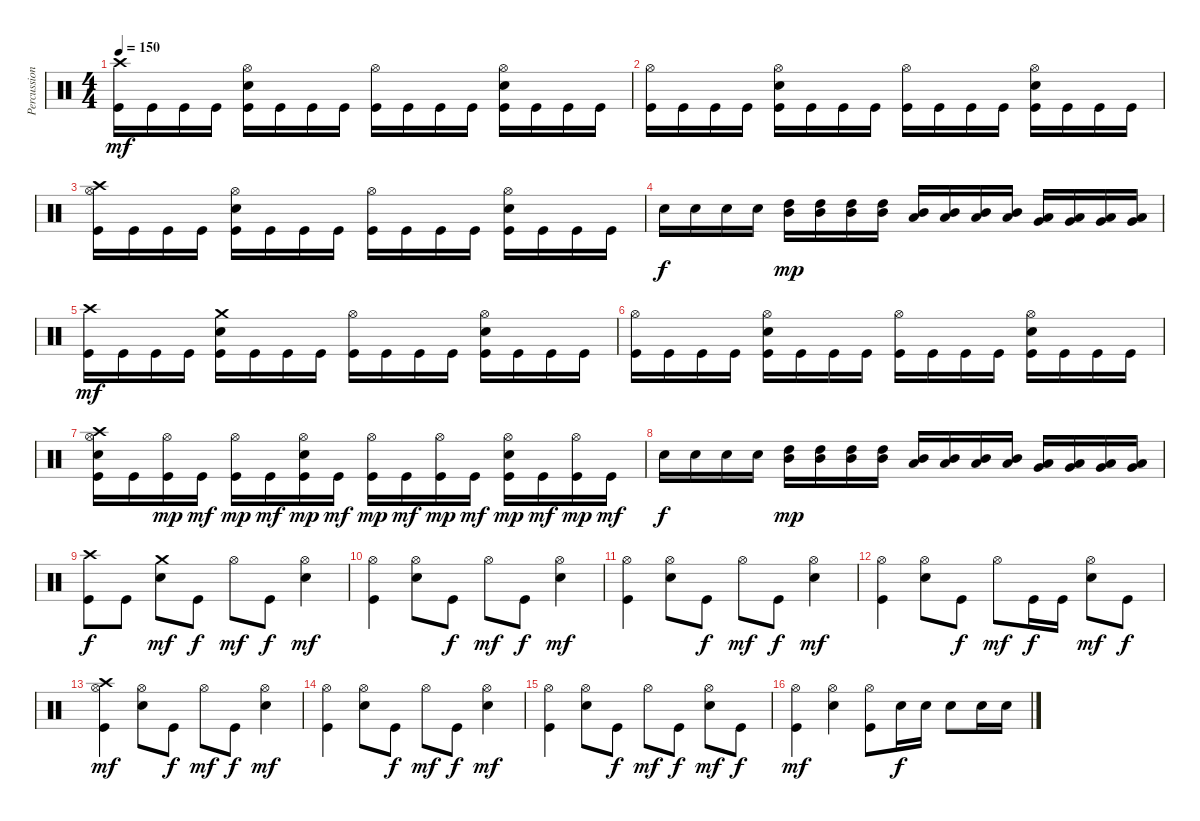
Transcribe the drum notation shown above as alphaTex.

\track ("Percussions" "Percussion") {instrument percussion}
\staff {score}
\articulation defaults
\ts (4 4)
\tempo 150
\clef neutral
\ks c
("Kick (hit)" "Crash high (hit)").16{dy mf} "Kick (hit)".16 "Kick (hit)".16 "Kick (hit)".16 ("Kick (hit)" "Electric Snare (hit)" "Hi-Hat (open)").16 "Kick (hit)".16 "Kick (hit)".16 "Kick (hit)".16 ("Kick (hit)" "Hi-Hat (open)").16 "Kick (hit)".16 "Kick (hit)".16 "Kick (hit)".16 ("Kick (hit)" "Electric Snare (hit)" "Hi-Hat (open)").16 "Kick (hit)".16 "Kick (hit)".16 "Kick (hit)".16 |
("Kick (hit)" "Hi-Hat (open)").16 "Kick (hit)".16 "Kick (hit)".16 "Kick (hit)".16 ("Kick (hit)" "Electric Snare (hit)" "Hi-Hat (open)").16 "Kick (hit)".16 "Kick (hit)".16 "Kick (hit)".16 ("Kick (hit)" "Hi-Hat (open)").16 "Kick (hit)".16 "Kick (hit)".16 "Kick (hit)".16 ("Kick (hit)" "Electric Snare (hit)" "Hi-Hat (open)").16 "Kick (hit)".16 "Kick (hit)".16 "Kick (hit)".16 |
("Kick (hit)" "Hi-Hat (open)" "Crash high (hit)").16 "Kick (hit)".16 "Kick (hit)".16 "Kick (hit)".16 ("Kick (hit)" "Electric Snare (hit)" "Hi-Hat (open)").16 "Kick (hit)".16 "Kick (hit)".16 "Kick (hit)".16 ("Kick (hit)" "Hi-Hat (open)").16 "Kick (hit)".16 "Kick (hit)".16 "Kick (hit)".16 ("Kick (hit)" "Electric Snare (hit)" "Hi-Hat (open)").16 "Kick (hit)".16 "Kick (hit)".16 "Kick (hit)".16 |
"Electric Snare (hit)".16{dy f} "Electric Snare (hit)".16 "Electric Snare (hit)".16 "Electric Snare (hit)".16 ("High Tom (hit)" "Mid Tom (hit)").16{dy mp} ("High Tom (hit)" "Mid Tom (hit)").16 ("High Tom (hit)" "Mid Tom (hit)").16 ("High Tom (hit)" "Mid Tom (hit)").16 ("Mid Tom (hit)" "Low Tom (hit)").16 ("Mid Tom (hit)" "Low Tom (hit)").16 ("Mid Tom (hit)" "Low Tom (hit)").16 ("Mid Tom (hit)" "Low Tom (hit)").16 ("Low Tom (hit)" "Very Low Tom (hit)").16 ("Low Tom (hit)" "Very Low Tom (hit)").16 ("Low Tom (hit)" "Very Low Tom (hit)").16 ("Low Tom (hit)" "Very Low Tom (hit)").16 |
("Kick (hit)" "Crash high (hit)").16{dy mf} "Kick (hit)".16 "Kick (hit)".16 "Kick (hit)".16 ("Kick (hit)" "Electric Snare (hit)" "Crash medium (hit)").16 "Kick (hit)".16 "Kick (hit)".16 "Kick (hit)".16 ("Kick (hit)" "Hi-Hat (open)").16 "Kick (hit)".16 "Kick (hit)".16 "Kick (hit)".16 ("Kick (hit)" "Electric Snare (hit)" "Hi-Hat (open)").16 "Kick (hit)".16 "Kick (hit)".16 "Kick (hit)".16 |
("Kick (hit)" "Hi-Hat (open)").16 "Kick (hit)".16 "Kick (hit)".16 "Kick (hit)".16 ("Kick (hit)" "Electric Snare (hit)" "Hi-Hat (open)").16 "Kick (hit)".16 "Kick (hit)".16 "Kick (hit)".16 ("Kick (hit)" "Hi-Hat (open)").16 "Kick (hit)".16 "Kick (hit)".16 "Kick (hit)".16 ("Kick (hit)" "Electric Snare (hit)" "Hi-Hat (open)").16 "Kick (hit)".16 "Kick (hit)".16 "Kick (hit)".16 |
("Kick (hit)" "Electric Snare (hit)" "Hi-Hat (open)" "Crash high (hit)").16 "Kick (hit)".16 ("Kick (hit)" "Hi-Hat (open)").16{dy mp} "Kick (hit)".16{dy mf} ("Kick (hit)" "Hi-Hat (open)").16{dy mp} "Kick (hit)".16{dy mf} ("Kick (hit)" "Electric Snare (hit)" "Hi-Hat (open)").16{dy mp} "Kick (hit)".16{dy mf} ("Kick (hit)" "Hi-Hat (open)").16{dy mp} "Kick (hit)".16{dy mf} ("Kick (hit)" "Hi-Hat (open)").16{dy mp} "Kick (hit)".16{dy mf} ("Kick (hit)" "Electric Snare (hit)" "Hi-Hat (open)").16{dy mp} "Kick (hit)".16{dy mf} ("Kick (hit)" "Hi-Hat (open)").16{dy mp} "Kick (hit)".16{dy mf} |
"Electric Snare (hit)".16{dy f} "Electric Snare (hit)".16 "Electric Snare (hit)".16 "Electric Snare (hit)".16 ("High Tom (hit)" "Mid Tom (hit)").16{dy mp} ("High Tom (hit)" "Mid Tom (hit)").16 ("High Tom (hit)" "Mid Tom (hit)").16 ("High Tom (hit)" "Mid Tom (hit)").16 ("Mid Tom (hit)" "Low Tom (hit)").16 ("Mid Tom (hit)" "Low Tom (hit)").16 ("Mid Tom (hit)" "Low Tom (hit)").16 ("Mid Tom (hit)" "Low Tom (hit)").16 ("Low Tom (hit)" "Very Low Tom (hit)").16 ("Low Tom (hit)" "Very Low Tom (hit)").16 ("Low Tom (hit)" "Very Low Tom (hit)").16 ("Low Tom (hit)" "Very Low Tom (hit)").16 |
("Kick (hit)" "Crash high (hit)").8{dy f} "Kick (hit)".8 ("Electric Snare (hit)" "Crash medium (hit)").8{dy mf} "Kick (hit)".8{dy f} "Hi-Hat (open)".8{dy mf} "Kick (hit)".8{dy f} ("Electric Snare (hit)" "Hi-Hat (open)").4{dy mf} |
("Kick (hit)" "Hi-Hat (open)").4 ("Electric Snare (hit)" "Hi-Hat (open)").8 "Kick (hit)".8{dy f} "Hi-Hat (open)".8{dy mf} "Kick (hit)".8{dy f} ("Electric Snare (hit)" "Hi-Hat (open)").4{dy mf} |
("Kick (hit)" "Hi-Hat (open)").4 ("Electric Snare (hit)" "Hi-Hat (open)").8 "Kick (hit)".8{dy f} "Hi-Hat (open)".8{dy mf} "Kick (hit)".8{dy f} ("Electric Snare (hit)" "Hi-Hat (open)").4{dy mf} |
("Kick (hit)" "Hi-Hat (open)").4 ("Electric Snare (hit)" "Hi-Hat (open)").8 "Kick (hit)".8{dy f} "Hi-Hat (open)".8{dy mf} "Kick (hit)".16{dy f} "Kick (hit)".16 ("Electric Snare (hit)" "Hi-Hat (open)").8{dy mf} "Kick (hit)".8{dy f} |
("Kick (hit)" "Hi-Hat (open)" "Crash high (hit)").4{dy mf} ("Electric Snare (hit)" "Hi-Hat (open)").8 "Kick (hit)".8{dy f} "Hi-Hat (open)".8{dy mf} "Kick (hit)".8{dy f} ("Electric Snare (hit)" "Hi-Hat (open)").4{dy mf} |
("Kick (hit)" "Hi-Hat (open)").4 ("Electric Snare (hit)" "Hi-Hat (open)").8 "Kick (hit)".8{dy f} "Hi-Hat (open)".8{dy mf} "Kick (hit)".8{dy f} ("Electric Snare (hit)" "Hi-Hat (open)").4{dy mf} |
("Kick (hit)" "Hi-Hat (open)").4 ("Electric Snare (hit)" "Hi-Hat (open)").8 "Kick (hit)".8{dy f} "Hi-Hat (open)".8{dy mf} "Kick (hit)".8{dy f} ("Electric Snare (hit)" "Hi-Hat (open)").8{dy mf} "Kick (hit)".8{dy f} |
("Kick (hit)" "Hi-Hat (open)").4{dy mf} ("Electric Snare (hit)" "Hi-Hat (open)").4 ("Kick (hit)" "Hi-Hat (open)").8 "Electric Snare (hit)".16{dy f} "Electric Snare (hit)".16 "Electric Snare (hit)".8 "Electric Snare (hit)".16 "Electric Snare (hit)".16
